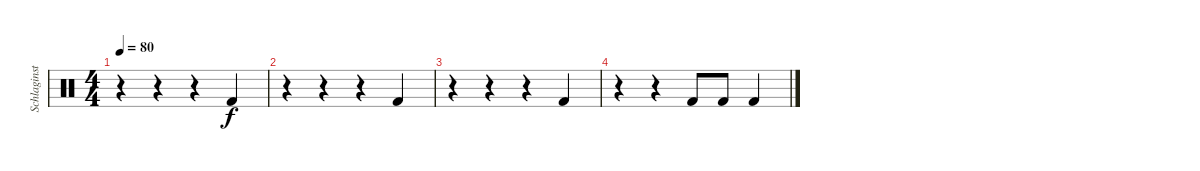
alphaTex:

\track ("Schlaginstrumente - Auswahl" "Schlaginst") {instrument percussion}
\staff {score}
\articulation defaults
\ts (4 4)
\tempo 80
\clef neutral
\ks c
r.4{dy f} r.4 r.4 "Kick (hit) 2".4 |
r.4 r.4 r.4 "Kick (hit) 2".4 |
r.4 r.4 r.4 "Kick (hit) 2".4 |
r.4 r.4 "Kick (hit) 2".8 "Kick (hit) 2".8 "Kick (hit) 2".4
